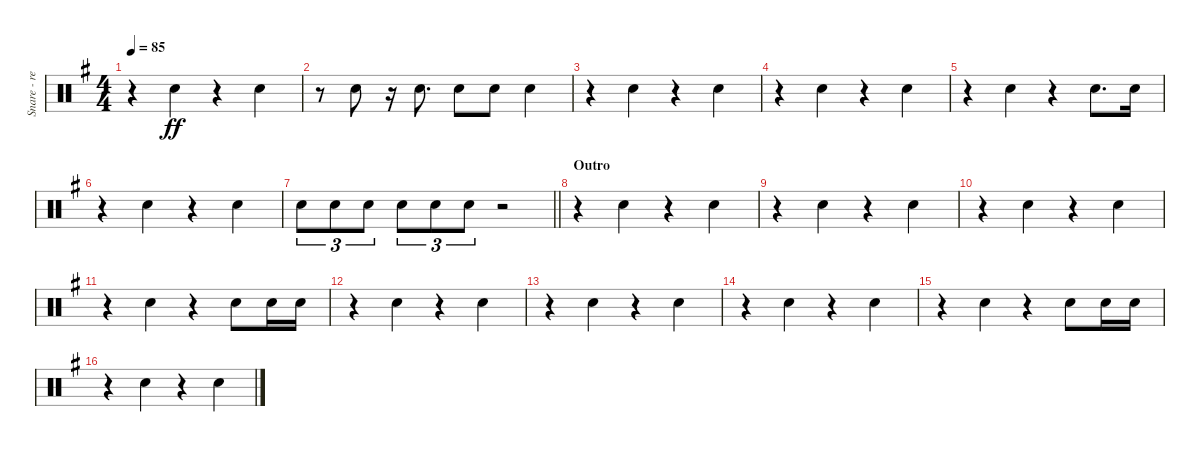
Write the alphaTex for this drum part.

\track ("Snare - reverb" "Snare - re") {instrument percussion}
\staff {score}
\articulation defaults
\ts (4 4)
\tempo 85
\clef neutral
\ks g
r.4{dy ff beam merge} "Snare (hit) 2".4 r.4{beam merge} "Snare (hit) 2".4 |
r.8 "Snare (hit) 2".8 r.16 "Snare (hit) 2".8{d} "Snare (hit) 2".8 "Snare (hit) 2".8 "Snare (hit) 2".4 |
r.4{beam merge} "Snare (hit) 2".4 r.4{beam merge} "Snare (hit) 2".4 |
r.4{beam merge} "Snare (hit) 2".4 r.4{beam merge} "Snare (hit) 2".4 |
r.4{beam merge} "Snare (hit) 2".4 r.4 "Snare (hit) 2".8{d} "Snare (hit) 2".16 |
r.4{beam merge} "Snare (hit) 2".4 r.4{beam merge} "Snare (hit) 2".4 |
\barLineRight lightlight "Snare (hit) 2".8{tu (3 2)} "Snare (hit) 2".8{tu (3 2)} "Snare (hit) 2".8{tu (3 2)} "Snare (hit) 2".8{tu (3 2)} "Snare (hit) 2".8{tu (3 2)} "Snare (hit) 2".8{tu (3 2)}
r.2 |
\section ("" "Outro")
r.4{beam merge} "Snare (hit) 2".4 r.4{beam merge} "Snare (hit) 2".4 |
r.4{beam merge} "Snare (hit) 2".4 r.4{beam merge} "Snare (hit) 2".4 |
r.4{beam merge} "Snare (hit) 2".4 r.4{beam merge} "Snare (hit) 2".4 |
r.4{beam merge} "Snare (hit) 2".4 r.4 "Snare (hit) 2".8 "Snare (hit) 2".16 "Snare (hit) 2".16 |
r.4{beam merge} "Snare (hit) 2".4 r.4{beam merge} "Snare (hit) 2".4 |
r.4{beam merge} "Snare (hit) 2".4 r.4{beam merge} "Snare (hit) 2".4 |
r.4{beam merge} "Snare (hit) 2".4 r.4{beam merge} "Snare (hit) 2".4 |
r.4{beam merge} "Snare (hit) 2".4 r.4 "Snare (hit) 2".8 "Snare (hit) 2".16 "Snare (hit) 2".16 |
r.4{beam merge} "Snare (hit) 2".4 r.4{beam merge} "Snare (hit) 2".4
